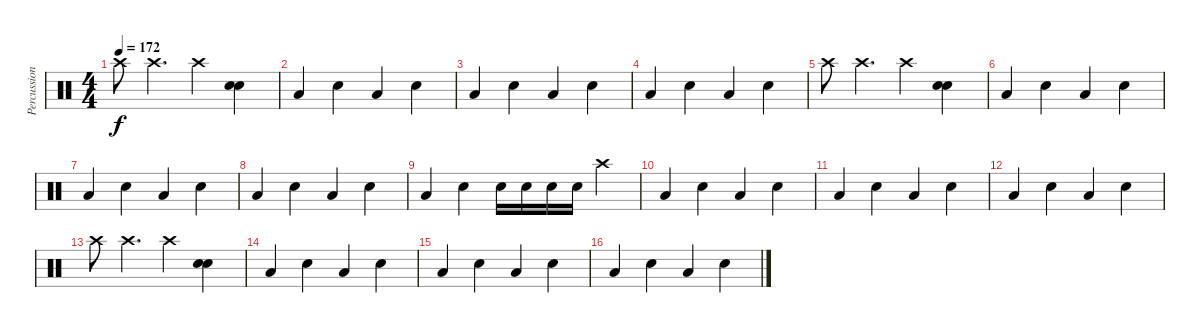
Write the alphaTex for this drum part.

\track ("Percussion" "Percussion") {instrument percussion}
\staff {score}
\articulation defaults
\ts (4 4)
\tempo 172
\clef neutral
\ks c "Crash high (hit)".8{dy f} "Crash high (hit)".4{d} "Crash high (hit)".4
("Snare (hit) 2" "Snare (hit) 2").4 |
"Low Tom (hit)".4 "Snare (hit) 2".4 "Low Tom (hit)".4 "Snare (hit) 2".4 |
"Low Tom (hit)".4 "Snare (hit) 2".4 "Low Tom (hit)".4 "Snare (hit) 2".4 |
"Low Tom (hit)".4 "Snare (hit) 2".4 "Low Tom (hit)".4 "Snare (hit) 2".4 |
"Crash high (hit)".8 "Crash high (hit)".4{d} "Crash high (hit)".4 ("Snare (hit) 2" "Snare (hit) 2").4 |
"Low Tom (hit)".4 "Snare (hit) 2".4 "Low Tom (hit)".4 "Snare (hit) 2".4 |
"Low Tom (hit)".4 "Snare (hit) 2".4 "Low Tom (hit)".4 "Snare (hit) 2".4 |
"Low Tom (hit)".4 "Snare (hit) 2".4 "Low Tom (hit)".4 "Snare (hit) 2".4 |
"Low Tom (hit)".4 "Snare (hit) 2".4 "Snare (hit) 2".16 "Snare (hit) 2".16 "Snare (hit) 2".16 "Snare (hit) 2".16 "Crash high (hit)".4 |
"Low Tom (hit)".4 "Snare (hit) 2".4 "Low Tom (hit)".4 "Snare (hit) 2".4 |
"Low Tom (hit)".4 "Snare (hit) 2".4 "Low Tom (hit)".4 "Snare (hit) 2".4 |
"Low Tom (hit)".4 "Snare (hit) 2".4 "Low Tom (hit)".4 "Snare (hit) 2".4 |
"Crash high (hit)".8 "Crash high (hit)".4{d} "Crash high (hit)".4 ("Snare (hit) 2" "Snare (hit) 2").4 |
"Low Tom (hit)".4 "Snare (hit) 2".4 "Low Tom (hit)".4 "Snare (hit) 2".4 |
"Low Tom (hit)".4 "Snare (hit) 2".4 "Low Tom (hit)".4 "Snare (hit) 2".4 |
"Low Tom (hit)".4 "Snare (hit) 2".4 "Low Tom (hit)".4 "Snare (hit) 2".4
